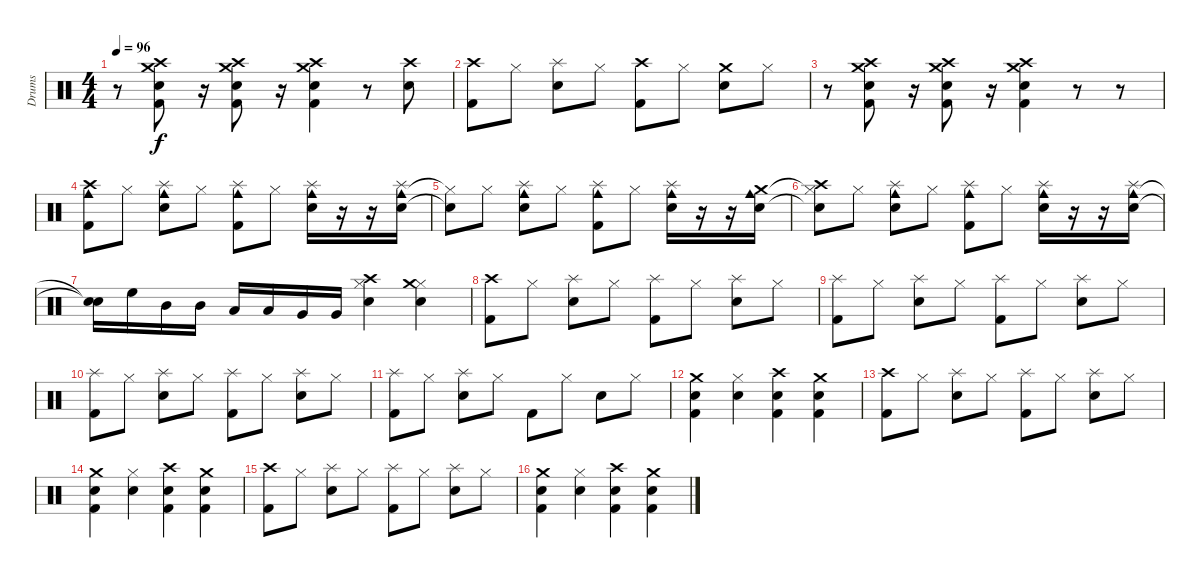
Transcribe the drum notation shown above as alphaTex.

\track ("Drums" "Drums") {instrument percussion}
\staff {score}
\articulation defaults
\ts (4 4)
\tempo 96
\clef neutral
\ks c
r.8{dy f} ("Snare (hit) 2" "Kick (hit) 2" "Crash high (hit)" "Crash medium (hit)").8 r.16 ("Snare (hit) 2" "Kick (hit) 2" "Crash high (hit)" "Crash medium (hit)").8 r.16 ("Snare (hit) 2" "Kick (hit) 2" "Crash high (hit)" "Crash medium (hit)").4 r.8 ("Snare (hit) 2" "Crash high (hit)").8 |
("Kick (hit) 2" "Crash high (hit)").8 "Hi-Hat (closed)".8 ("Snare (hit) 2" "Splash (hit)").8 "Hi-Hat (closed)".8 ("Kick (hit) 2" "Crash high (hit)").8 "Hi-Hat (closed)".8 ("Snare (hit) 2" "Crash medium (hit)").8 "Hi-Hat (closed)".8 |
r.8 ("Snare (hit) 2" "Kick (hit) 2" "Crash high (hit)" "Crash medium (hit)").8 r.16 ("Snare (hit) 2" "Kick (hit) 2" "Crash high (hit)" "Crash medium (hit)").8 r.16 ("Snare (hit) 2" "Kick (hit) 2" "Crash high (hit)" "Crash medium (hit)").4 r.8 r.8 |
("Kick (hit) 2" "Cowbell medium (hit)" "Crash high (hit)").8 "Hi-Hat (closed)".8 ("Snare (hit) 2" "Cowbell medium (hit)" "Splash (hit)").8 "Hi-Hat (closed)".8 ("Kick (hit) 2" "Cowbell medium (hit)" "Splash (hit)").8 "Hi-Hat (closed)".8 ("Snare (hit) 2" "Cowbell medium (hit)" "Splash (hit)").16 r.16 r.16 ("Snare (hit) 2" "Cowbell medium (hit)" "Splash (hit)").16 |
("Snare (hit) 2"{t} "Hi-Hat (closed)"{t}).8 "Hi-Hat (closed)".8 ("Snare (hit) 2" "Cowbell medium (hit)" "Splash (hit)").8 "Hi-Hat (closed)".8 ("Kick (hit) 2" "Cowbell medium (hit)" "Splash (hit)").8 "Hi-Hat (closed)".8 ("Snare (hit) 2" "Cowbell medium (hit)" "Splash (hit)").16 r.16 r.16 ("Snare (hit) 2" "Cowbell medium (hit)" "Crash medium (hit)").16 |
("Snare (hit) 2"{t} "Hi-Hat (closed)"{t} "Crash high (hit)").8 "Hi-Hat (closed)".8 ("Snare (hit) 2" "Cowbell medium (hit)" "Splash (hit)").8 "Hi-Hat (closed)".8 ("Kick (hit) 2" "Cowbell medium (hit)" "Splash (hit)").8 "Hi-Hat (closed)".8 ("Snare (hit) 2" "Cowbell medium (hit)" "Splash (hit)").16 r.16 r.16 ("Snare (hit) 2" "Cowbell medium (hit)" "Splash (hit)").16 |
("Snare (hit)"{t} "Snare (hit)"{t}).16 "High Floor Tom (hit)".16 "Mid Tom (hit)".16 "Mid Tom (hit)".16 "Low Tom (hit)".16 "Low Tom (hit)".16 "Very Low Tom (hit)".16 "Very Low Tom (hit)".16 ("Snare (hit) 2" "Hi-Hat (closed)" "Crash high (hit)").4 ("Snare (hit) 2" "Hi-Hat (closed)" "Crash medium (hit)").4 |
("Kick (hit) 2" "Crash high (hit)").8 "Hi-Hat (closed)".8 ("Snare (hit) 2" "Splash (hit)").8 "Hi-Hat (closed)".8 ("Kick (hit) 2" "Splash (hit)").8 "Hi-Hat (closed)".8 ("Snare (hit) 2" "Splash (hit)").8 "Hi-Hat (closed)".8 |
("Kick (hit) 2" "Splash (hit)").8 "Hi-Hat (closed)".8 ("Snare (hit) 2" "Splash (hit)").8 "Hi-Hat (closed)".8 ("Kick (hit) 2" "Splash (hit)").8 "Hi-Hat (closed)".8 ("Snare (hit) 2" "Splash (hit)").8 "Hi-Hat (closed)".8 |
("Kick (hit) 2" "Splash (hit)").8 "Hi-Hat (closed)".8 ("Snare (hit) 2" "Splash (hit)").8 "Hi-Hat (closed)".8 ("Kick (hit) 2" "Splash (hit)").8 "Hi-Hat (closed)".8 ("Snare (hit) 2" "Splash (hit)").8 "Hi-Hat (closed)".8 |
("Kick (hit) 2" "Splash (hit)").8 "Hi-Hat (closed)".8 ("Snare (hit) 2" "Splash (hit)").8 "Hi-Hat (closed)".8 "Kick (hit) 2".8 "Hi-Hat (closed)".8 "Snare (hit) 2".8 "Hi-Hat (closed)".8 |
("Snare (hit) 2" "Kick (hit) 2" "Crash medium (hit)").4 ("Snare (hit) 2" "Hi-Hat (closed)").4 ("Snare (hit) 2" "Kick (hit) 2" "Crash high (hit)").4 ("Snare (hit) 2" "Kick (hit) 2" "Crash medium (hit)").4 |
("Kick (hit) 2" "Crash high (hit)").8 "Hi-Hat (closed)".8 ("Snare (hit) 2" "Splash (hit)").8 "Hi-Hat (closed)".8 ("Kick (hit) 2" "Splash (hit)").8 "Hi-Hat (closed)".8 ("Snare (hit) 2" "Splash (hit)").8 "Hi-Hat (closed)".8 |
("Snare (hit) 2" "Kick (hit) 2" "Crash medium (hit)").4 ("Snare (hit) 2" "Hi-Hat (closed)").4 ("Snare (hit) 2" "Kick (hit) 2" "Crash high (hit)").4 ("Snare (hit) 2" "Kick (hit) 2" "Crash medium (hit)").4 |
("Kick (hit) 2" "Crash high (hit)").8 "Hi-Hat (closed)".8 ("Snare (hit) 2" "Splash (hit)").8 "Hi-Hat (closed)".8 ("Kick (hit) 2" "Splash (hit)").8 "Hi-Hat (closed)".8 ("Snare (hit) 2" "Splash (hit)").8 "Hi-Hat (closed)".8 |
("Snare (hit) 2" "Kick (hit) 2" "Crash medium (hit)").4 ("Snare (hit) 2" "Hi-Hat (closed)").4 ("Snare (hit) 2" "Kick (hit) 2" "Crash high (hit)").4 ("Snare (hit) 2" "Kick (hit) 2" "Crash medium (hit)").4
